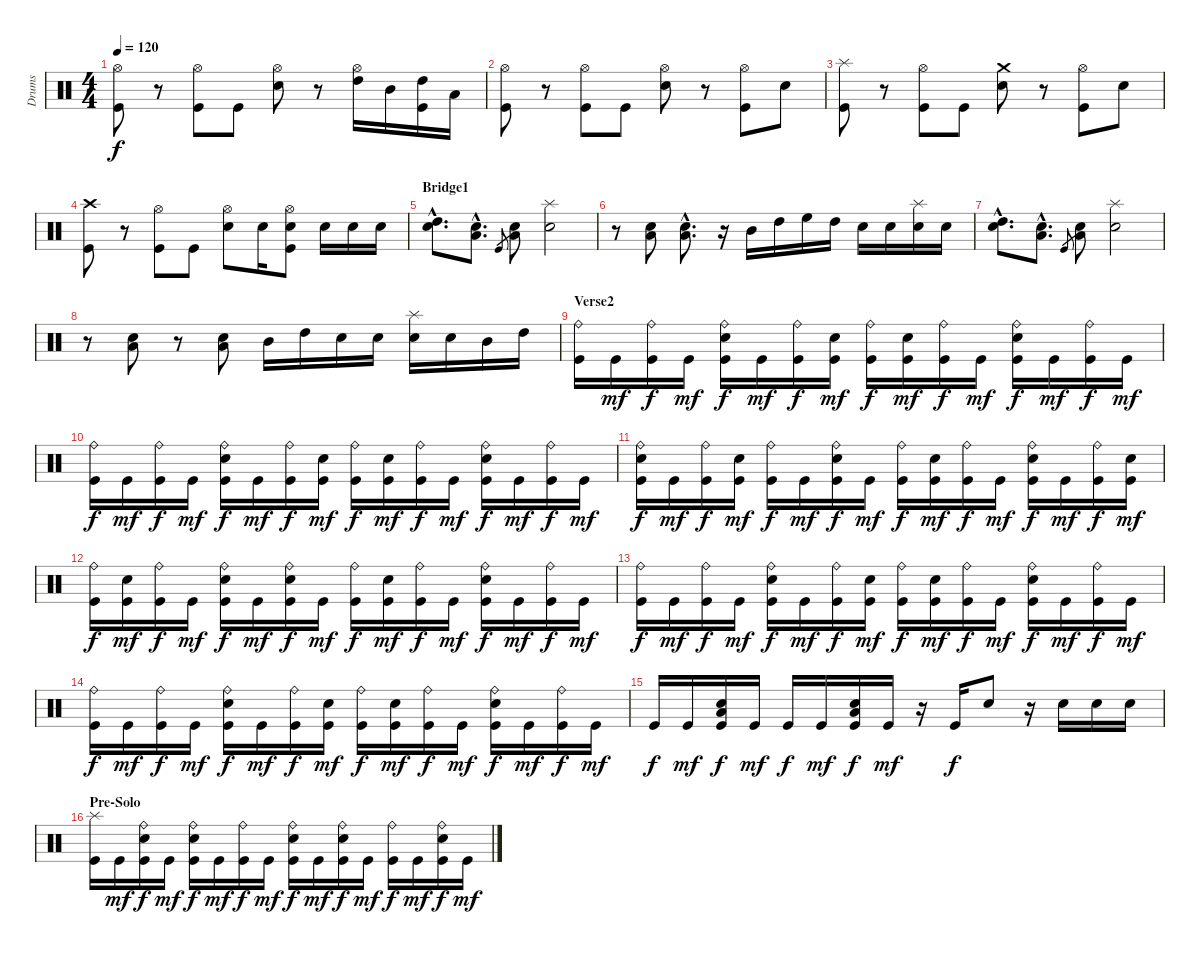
\track ("Drums" "Drums") {instrument percussion}
\staff {score}
\articulation defaults
\ts (4 4)
\tempo 120
\clef neutral
\ks c
("Hi-Hat (open)" "Kick (hit)").8{dy f} r.8 ("Hi-Hat (open)" "Kick (hit)").8 "Kick (hit)".8 ("Hi-Hat (open)" "Snare (hit) 2").8 r.8 ("Hi-Hat (open)" "High Tom (hit)").16 "Mid Tom (hit)".16 ("High Tom (hit)" "Kick (hit)").16 "Low Tom (hit)".16 |
("Hi-Hat (open)" "Kick (hit)").8 r.8 ("Hi-Hat (open)" "Kick (hit)").8 "Kick (hit)".8 ("Hi-Hat (open)" "Snare (hit) 2").8 r.8 ("Hi-Hat (open)" "Kick (hit)").8 "Snare (hit) 2".8 |
("Splash (hit)" "Kick (hit)").8 r.8 ("Hi-Hat (open)" "Kick (hit)").8 "Kick (hit)".8 ("Crash medium (hit)" "Snare (hit) 2").8 r.8 ("Hi-Hat (open)" "Kick (hit)").8 "Snare (hit) 2".8 |
("Crash high (hit)" "Kick (hit)").8 r.8 ("Hi-Hat (open)" "Kick (hit)").8 "Kick (hit)".8 ("Hi-Hat (open)" "Snare (hit) 2").8 "Snare (hit) 2".16 ("Hi-Hat (open)" "Snare (hit) 2" "Kick (hit)").8 "Snare (hit) 2".16 "Snare (hit) 2".16 "Snare (hit) 2".16 |
\section ("" "Bridge1")
("High Tom (hit)"{hac} "Snare (hit) 2"{hac}).8{d} ("Low Tom (hit)"{hac} "Snare (hit) 2"{hac}).8{d} "Kick (hit)".8{gr} ("Low Tom (hit)" "Snare (hit) 2").8 ("Splash (hit)" "Snare (hit) 2").2 |
r.8 ("Low Tom (hit)" "Snare (hit) 2").8 ("Low Tom (hit)"{hac} "Snare (hit) 2"{hac}).8{d} r.16 "Mid Tom (hit)".16 "High Tom (hit)".16 "High Floor Tom (hit)".16 "High Tom (hit)".16 "Snare (hit) 2".16 "Snare (hit) 2".16 ("Splash (hit)" "Snare (hit) 2").16 "Snare (hit) 2".16 |
("High Tom (hit)"{hac} "Snare (hit) 2"{hac}).8{d} ("Low Tom (hit)"{hac} "Snare (hit) 2"{hac}).8{d} "Kick (hit)".8{gr} ("Low Tom (hit)" "Snare (hit) 2").8 ("Splash (hit)" "Snare (hit) 2").2 |
r.8 ("Low Tom (hit)" "Snare (hit) 2").8 r.8 ("Low Tom (hit)" "Snare (hit) 2").8 "Mid Tom (hit)".16 "High Tom (hit)".16 "Snare (hit) 2".16 "Snare (hit) 2".16 ("Splash (hit)" "Snare (hit) 2").16 "Snare (hit) 2".16 "Mid Tom (hit)".16 "High Tom (hit)".16 |
\section ("" "Verse2")
("Ride (bell)" "Kick (hit)").16 "Kick (hit)".16{dy mf} ("Ride (bell)" "Kick (hit)").16{dy f} "Kick (hit)".16{dy mf} ("Ride (bell)" "Snare (hit) 2" "Kick (hit)").16{dy f} "Kick (hit)".16{dy mf} ("Ride (bell)" "Kick (hit)").16{dy f} ("Snare (hit) 2" "Kick (hit)").16{dy mf} ("Ride (bell)" "Kick (hit)").16{dy f} ("Snare (hit) 2" "Kick (hit)").16{dy mf} ("Ride (bell)" "Kick (hit)").16{dy f} "Kick (hit)".16{dy mf} ("Ride (bell)" "Snare (hit) 2" "Kick (hit)").16{dy f} "Kick (hit)".16{dy mf} ("Ride (bell)" "Kick (hit)").16{dy f} "Kick (hit)".16{dy mf} |
("Ride (bell)" "Kick (hit)").16{dy f} "Kick (hit)".16{dy mf} ("Ride (bell)" "Kick (hit)").16{dy f} "Kick (hit)".16{dy mf} ("Ride (bell)" "Snare (hit) 2" "Kick (hit)").16{dy f} "Kick (hit)".16{dy mf} ("Ride (bell)" "Kick (hit)").16{dy f} ("Snare (hit) 2" "Kick (hit)").16{dy mf} ("Ride (bell)" "Kick (hit)").16{dy f} ("Snare (hit) 2" "Kick (hit)").16{dy mf} ("Ride (bell)" "Kick (hit)").16{dy f} "Kick (hit)".16{dy mf} ("Ride (bell)" "Snare (hit) 2" "Kick (hit)").16{dy f} "Kick (hit)".16{dy mf} ("Ride (bell)" "Kick (hit)").16{dy f} "Kick (hit)".16{dy mf} |
("Ride (bell)" "Snare (hit) 2" "Kick (hit)").16{dy f} "Kick (hit)".16{dy mf} ("Ride (bell)" "Kick (hit)").16{dy f} ("Snare (hit) 2" "Kick (hit)").16{dy mf} ("Ride (bell)" "Kick (hit)").16{dy f} "Kick (hit)".16{dy mf} ("Ride (bell)" "Snare (hit) 2" "Kick (hit)").16{dy f} "Kick (hit)".16{dy mf} ("Ride (bell)" "Kick (hit)").16{dy f} ("Snare (hit) 2" "Kick (hit)").16{dy mf} ("Ride (bell)" "Kick (hit)").16{dy f} "Kick (hit)".16{dy mf} ("Ride (bell)" "Snare (hit) 2" "Kick (hit)").16{dy f} "Kick (hit)".16{dy mf} ("Ride (bell)" "Kick (hit)").16{dy f} ("Snare (hit) 2" "Kick (hit)").16{dy mf} |
("Ride (bell)" "Kick (hit)").16{dy f} ("Snare (hit) 2" "Kick (hit)").16{dy mf} ("Ride (bell)" "Kick (hit)").16{dy f} "Kick (hit)".16{dy mf} ("Ride (bell)" "Snare (hit) 2" "Kick (hit)").16{dy f} "Kick (hit)".16{dy mf} ("Ride (bell)" "Snare (hit) 2" "Kick (hit)").16{dy f} "Kick (hit)".16{dy mf} ("Ride (bell)" "Kick (hit)").16{dy f} ("Snare (hit) 2" "Kick (hit)").16{dy mf} ("Ride (bell)" "Kick (hit)").16{dy f} "Kick (hit)".16{dy mf} ("Ride (bell)" "Snare (hit) 2" "Kick (hit)").16{dy f} "Kick (hit)".16{dy mf} ("Ride (bell)" "Kick (hit)").16{dy f} "Kick (hit)".16{dy mf} |
("Ride (bell)" "Kick (hit)").16{dy f} "Kick (hit)".16{dy mf} ("Ride (bell)" "Kick (hit)").16{dy f} "Kick (hit)".16{dy mf} ("Ride (bell)" "Snare (hit) 2" "Kick (hit)").16{dy f} "Kick (hit)".16{dy mf} ("Ride (bell)" "Kick (hit)").16{dy f} ("Snare (hit) 2" "Kick (hit)").16{dy mf} ("Ride (bell)" "Kick (hit)").16{dy f} ("Snare (hit) 2" "Kick (hit)").16{dy mf} ("Ride (bell)" "Kick (hit)").16{dy f} "Kick (hit)".16{dy mf} ("Ride (bell)" "Snare (hit) 2" "Kick (hit)").16{dy f} "Kick (hit)".16{dy mf} ("Ride (bell)" "Kick (hit)").16{dy f} "Kick (hit)".16{dy mf} |
("Ride (bell)" "Kick (hit)").16{dy f} "Kick (hit)".16{dy mf} ("Ride (bell)" "Kick (hit)").16{dy f} "Kick (hit)".16{dy mf} ("Ride (bell)" "Snare (hit) 2" "Kick (hit)").16{dy f} "Kick (hit)".16{dy mf} ("Ride (bell)" "Kick (hit)").16{dy f} ("Snare (hit) 2" "Kick (hit)").16{dy mf} ("Ride (bell)" "Kick (hit)").16{dy f} ("Snare (hit) 2" "Kick (hit)").16{dy mf} ("Ride (bell)" "Kick (hit)").16{dy f} "Kick (hit)".16{dy mf} ("Ride (bell)" "Snare (hit) 2" "Kick (hit)").16{dy f} "Kick (hit)".16{dy mf} ("Ride (bell)" "Kick (hit)").16{dy f} "Kick (hit)".16{dy mf} |
"Kick (hit)".16{dy f} "Kick (hit)".16{dy mf} ("Low Tom (hit)" "Snare (hit) 2" "Kick (hit)").16{dy f} "Kick (hit)".16{dy mf} "Kick (hit)".16{dy f} "Kick (hit)".16{dy mf} ("Low Tom (hit)" "Snare (hit) 2" "Kick (hit)").16{dy f} "Kick (hit)".16{dy mf} r.16 "Kick (hit)".16{dy f} "Snare (hit) 2".8 r.16 "Snare (hit) 2".16 "Snare (hit) 2".16 "Snare (hit) 2".16 |
\section ("" "Pre-Solo")
("Splash (hit)" "Kick (hit)").16 "Kick (hit)".16{dy mf} ("Ride (bell)" "Snare (hit) 2" "Kick (hit)").16{dy f} "Kick (hit)".16{dy mf} ("Ride (bell)" "Snare (hit) 2" "Kick (hit)").16{dy f} "Kick (hit)".16{dy mf} ("Ride (bell)" "Kick (hit)").16{dy f} "Kick (hit)".16{dy mf} ("Ride (bell)" "Snare (hit) 2" "Kick (hit)").16{dy f} "Kick (hit)".16{dy mf} ("Ride (bell)" "Snare (hit) 2" "Kick (hit)").16{dy f} "Kick (hit)".16{dy mf} ("Ride (bell)" "Kick (hit)").16{dy f} "Kick (hit)".16{dy mf} ("Ride (bell)" "Snare (hit) 2" "Kick (hit)").16{dy f} "Kick (hit)".16{dy mf}
